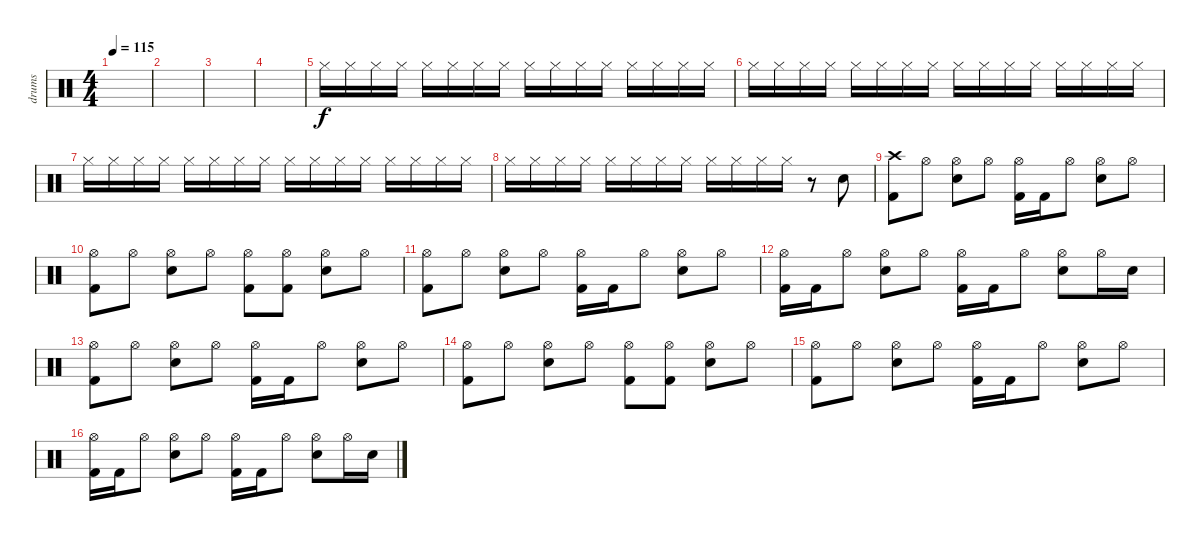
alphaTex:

\track ("drums" "drums") {instrument percussion}
\staff {score}
\articulation defaults
\ts (4 4)
\tempo 115
\clef neutral
\ks c
|
|
|
|
"Hi-Hat (closed)".16 "Hi-Hat (closed)".16 "Hi-Hat (closed)".16 "Hi-Hat (closed)".16 "Hi-Hat (closed)".16 "Hi-Hat (closed)".16 "Hi-Hat (closed)".16 "Hi-Hat (closed)".16 "Hi-Hat (closed)".16 "Hi-Hat (closed)".16 "Hi-Hat (closed)".16 "Hi-Hat (closed)".16 "Hi-Hat (closed)".16 "Hi-Hat (closed)".16 "Hi-Hat (closed)".16 "Hi-Hat (closed)".16 |
"Hi-Hat (closed)".16 "Hi-Hat (closed)".16 "Hi-Hat (closed)".16 "Hi-Hat (closed)".16 "Hi-Hat (closed)".16 "Hi-Hat (closed)".16 "Hi-Hat (closed)".16 "Hi-Hat (closed)".16 "Hi-Hat (closed)".16 "Hi-Hat (closed)".16 "Hi-Hat (closed)".16 "Hi-Hat (closed)".16 "Hi-Hat (closed)".16 "Hi-Hat (closed)".16 "Hi-Hat (closed)".16 "Hi-Hat (closed)".16 |
"Hi-Hat (closed)".16 "Hi-Hat (closed)".16 "Hi-Hat (closed)".16 "Hi-Hat (closed)".16 "Hi-Hat (closed)".16 "Hi-Hat (closed)".16 "Hi-Hat (closed)".16 "Hi-Hat (closed)".16 "Hi-Hat (closed)".16 "Hi-Hat (closed)".16 "Hi-Hat (closed)".16 "Hi-Hat (closed)".16 "Hi-Hat (closed)".16 "Hi-Hat (closed)".16 "Hi-Hat (closed)".16 "Hi-Hat (closed)".16 |
"Hi-Hat (closed)".16 "Hi-Hat (closed)".16 "Hi-Hat (closed)".16 "Hi-Hat (closed)".16 "Hi-Hat (closed)".16 "Hi-Hat (closed)".16 "Hi-Hat (closed)".16 "Hi-Hat (closed)".16 "Hi-Hat (closed)".16 "Hi-Hat (closed)".16 "Hi-Hat (closed)".16 "Hi-Hat (closed)".16 r.8 "Snare (hit) 2".8 |
("Crash high (hit)" "Kick (hit) 2").8 "Hi-Hat (open)".8 ("Hi-Hat (open)" "Electric Snare (hit)").8 "Hi-Hat (open)".8 ("Hi-Hat (open)" "Kick (hit) 2").16 "Kick (hit) 2".16 "Hi-Hat (open)".8 ("Hi-Hat (open)" "Electric Snare (hit)").8 "Hi-Hat (open)".8 |
("Hi-Hat (open)" "Kick (hit) 2").8 "Hi-Hat (open)".8 ("Hi-Hat (open)" "Electric Snare (hit)").8 "Hi-Hat (open)".8 ("Hi-Hat (open)" "Kick (hit) 2").8 ("Hi-Hat (open)" "Kick (hit) 2").8 ("Hi-Hat (open)" "Electric Snare (hit)").8 "Hi-Hat (open)".8 |
("Hi-Hat (open)" "Kick (hit) 2").8 "Hi-Hat (open)".8 ("Hi-Hat (open)" "Electric Snare (hit)").8 "Hi-Hat (open)".8 ("Hi-Hat (open)" "Kick (hit) 2").16 "Kick (hit) 2".16 "Hi-Hat (open)".8 ("Hi-Hat (open)" "Electric Snare (hit)").8 "Hi-Hat (open)".8 |
("Hi-Hat (open)" "Kick (hit) 2").16 "Kick (hit) 2".16 "Hi-Hat (open)".8 ("Hi-Hat (open)" "Electric Snare (hit)").8 "Hi-Hat (open)".8 ("Hi-Hat (open)" "Kick (hit) 2").16 "Kick (hit) 2".16 "Hi-Hat (open)".8 ("Hi-Hat (open)" "Electric Snare (hit)").8 "Hi-Hat (open)".16 "Electric Snare (hit)".16 |
("Hi-Hat (open)" "Kick (hit) 2").8 "Hi-Hat (open)".8 ("Hi-Hat (open)" "Electric Snare (hit)").8 "Hi-Hat (open)".8 ("Hi-Hat (open)" "Kick (hit) 2").16 "Kick (hit) 2".16 "Hi-Hat (open)".8 ("Hi-Hat (open)" "Electric Snare (hit)").8 "Hi-Hat (open)".8 |
("Hi-Hat (open)" "Kick (hit) 2").8 "Hi-Hat (open)".8 ("Hi-Hat (open)" "Electric Snare (hit)").8 "Hi-Hat (open)".8 ("Hi-Hat (open)" "Kick (hit) 2").8 ("Hi-Hat (open)" "Kick (hit) 2").8 ("Hi-Hat (open)" "Electric Snare (hit)").8 "Hi-Hat (open)".8 |
("Hi-Hat (open)" "Kick (hit) 2").8 "Hi-Hat (open)".8 ("Hi-Hat (open)" "Electric Snare (hit)").8 "Hi-Hat (open)".8 ("Hi-Hat (open)" "Kick (hit) 2").16 "Kick (hit) 2".16 "Hi-Hat (open)".8 ("Hi-Hat (open)" "Electric Snare (hit)").8 "Hi-Hat (open)".8 |
("Hi-Hat (open)" "Kick (hit) 2").16 "Kick (hit) 2".16 "Hi-Hat (open)".8 ("Hi-Hat (open)" "Electric Snare (hit)").8 "Hi-Hat (open)".8 ("Hi-Hat (open)" "Kick (hit) 2").16 "Kick (hit) 2".16 "Hi-Hat (open)".8 ("Hi-Hat (open)" "Electric Snare (hit)").8 "Hi-Hat (open)".16 "Electric Snare (hit)".16
